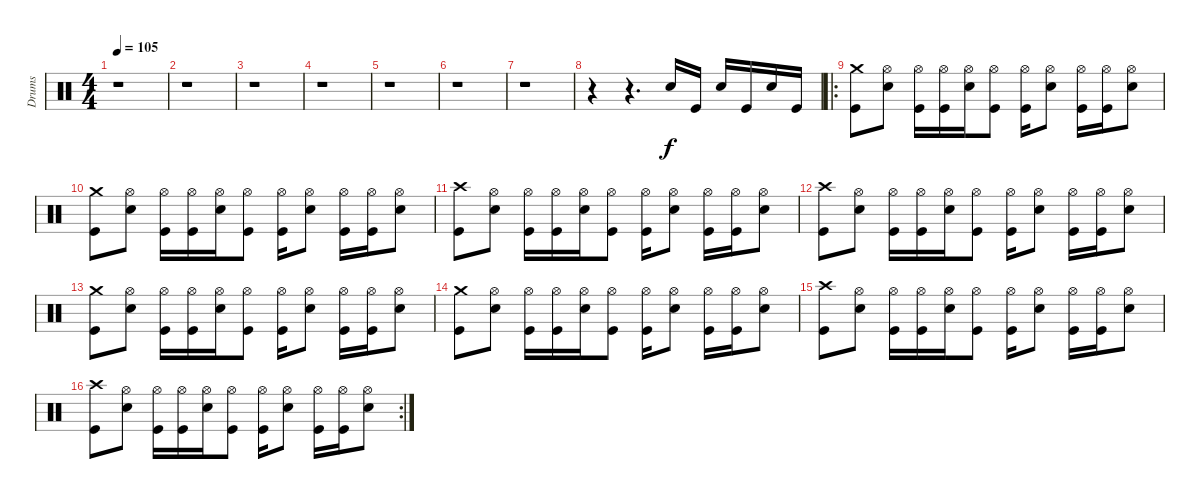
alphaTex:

\track ("Drums" "Drums") {instrument percussion}
\staff {score}
\articulation defaults
\ts (4 4)
\tempo 105
\clef neutral
\ks c
r.1{dy f} |
r.1 |
r.1 |
r.1 |
r.1 |
r.1 |
r.1 |
r.4 r.4{d} "Electric Snare (hit)".16 "Kick (hit)".16 "Electric Snare (hit)".16 "Kick (hit)".16 "Electric Snare (hit)".16 "Kick (hit)".16 |
\ro
("Crash medium (hit)" "Kick (hit)").8 ("Electric Snare (hit)" "Hi-Hat (open)").8 ("Hi-Hat (open)" "Kick (hit)").16 ("Hi-Hat (open)" "Kick (hit)").16 ("Electric Snare (hit)" "Hi-Hat (open)").16 ("Hi-Hat (open)" "Kick (hit)").8 ("Hi-Hat (open)" "Kick (hit)").16 ("Electric Snare (hit)" "Hi-Hat (open)").8 ("Hi-Hat (open)" "Kick (hit)").16 ("Hi-Hat (open)" "Kick (hit)").16 ("Electric Snare (hit)" "Hi-Hat (open)").8 |
("Crash medium (hit)" "Kick (hit)").8 ("Electric Snare (hit)" "Hi-Hat (open)").8 ("Hi-Hat (open)" "Kick (hit)").16 ("Hi-Hat (open)" "Kick (hit)").16 ("Electric Snare (hit)" "Hi-Hat (open)").16 ("Hi-Hat (open)" "Kick (hit)").8 ("Hi-Hat (open)" "Kick (hit)").16 ("Electric Snare (hit)" "Hi-Hat (open)").8 ("Hi-Hat (open)" "Kick (hit)").16 ("Hi-Hat (open)" "Kick (hit)").16 ("Electric Snare (hit)" "Hi-Hat (open)").8 |
("Crash high (hit)" "Kick (hit)").8 ("Electric Snare (hit)" "Hi-Hat (open)").8 ("Hi-Hat (open)" "Kick (hit)").16 ("Hi-Hat (open)" "Kick (hit)").16 ("Electric Snare (hit)" "Hi-Hat (open)").16 ("Hi-Hat (open)" "Kick (hit)").8 ("Hi-Hat (open)" "Kick (hit)").16 ("Electric Snare (hit)" "Hi-Hat (open)").8 ("Hi-Hat (open)" "Kick (hit)").16 ("Hi-Hat (open)" "Kick (hit)").16 ("Electric Snare (hit)" "Hi-Hat (open)").8 |
("Crash high (hit)" "Kick (hit)").8 ("Electric Snare (hit)" "Hi-Hat (open)").8 ("Hi-Hat (open)" "Kick (hit)").16 ("Hi-Hat (open)" "Kick (hit)").16 ("Electric Snare (hit)" "Hi-Hat (open)").16 ("Hi-Hat (open)" "Kick (hit)").8 ("Hi-Hat (open)" "Kick (hit)").16 ("Electric Snare (hit)" "Hi-Hat (open)").8 ("Hi-Hat (open)" "Kick (hit)").16 ("Hi-Hat (open)" "Kick (hit)").16 ("Electric Snare (hit)" "Hi-Hat (open)").8 |
("Crash medium (hit)" "Kick (hit)").8 ("Electric Snare (hit)" "Hi-Hat (open)").8 ("Hi-Hat (open)" "Kick (hit)").16 ("Hi-Hat (open)" "Kick (hit)").16 ("Electric Snare (hit)" "Hi-Hat (open)").16 ("Hi-Hat (open)" "Kick (hit)").8 ("Hi-Hat (open)" "Kick (hit)").16 ("Electric Snare (hit)" "Hi-Hat (open)").8 ("Hi-Hat (open)" "Kick (hit)").16 ("Hi-Hat (open)" "Kick (hit)").16 ("Electric Snare (hit)" "Hi-Hat (open)").8 |
("Crash medium (hit)" "Kick (hit)").8 ("Electric Snare (hit)" "Hi-Hat (open)").8 ("Hi-Hat (open)" "Kick (hit)").16 ("Hi-Hat (open)" "Kick (hit)").16 ("Electric Snare (hit)" "Hi-Hat (open)").16 ("Hi-Hat (open)" "Kick (hit)").8 ("Hi-Hat (open)" "Kick (hit)").16 ("Electric Snare (hit)" "Hi-Hat (open)").8 ("Hi-Hat (open)" "Kick (hit)").16 ("Hi-Hat (open)" "Kick (hit)").16 ("Electric Snare (hit)" "Hi-Hat (open)").8 |
("Crash high (hit)" "Kick (hit)").8 ("Electric Snare (hit)" "Hi-Hat (open)").8 ("Hi-Hat (open)" "Kick (hit)").16 ("Hi-Hat (open)" "Kick (hit)").16 ("Electric Snare (hit)" "Hi-Hat (open)").16 ("Hi-Hat (open)" "Kick (hit)").8 ("Hi-Hat (open)" "Kick (hit)").16 ("Electric Snare (hit)" "Hi-Hat (open)").8 ("Hi-Hat (open)" "Kick (hit)").16 ("Hi-Hat (open)" "Kick (hit)").16 ("Electric Snare (hit)" "Hi-Hat (open)").8 |
\rc 2
("Crash high (hit)" "Kick (hit)").8 ("Electric Snare (hit)" "Hi-Hat (open)").8 ("Hi-Hat (open)" "Kick (hit)").16 ("Hi-Hat (open)" "Kick (hit)").16 ("Electric Snare (hit)" "Hi-Hat (open)").16 ("Hi-Hat (open)" "Kick (hit)").8 ("Hi-Hat (open)" "Kick (hit)").16 ("Electric Snare (hit)" "Hi-Hat (open)").8 ("Hi-Hat (open)" "Kick (hit)").16 ("Hi-Hat (open)" "Kick (hit)").16 ("Electric Snare (hit)" "Hi-Hat (open)").8
